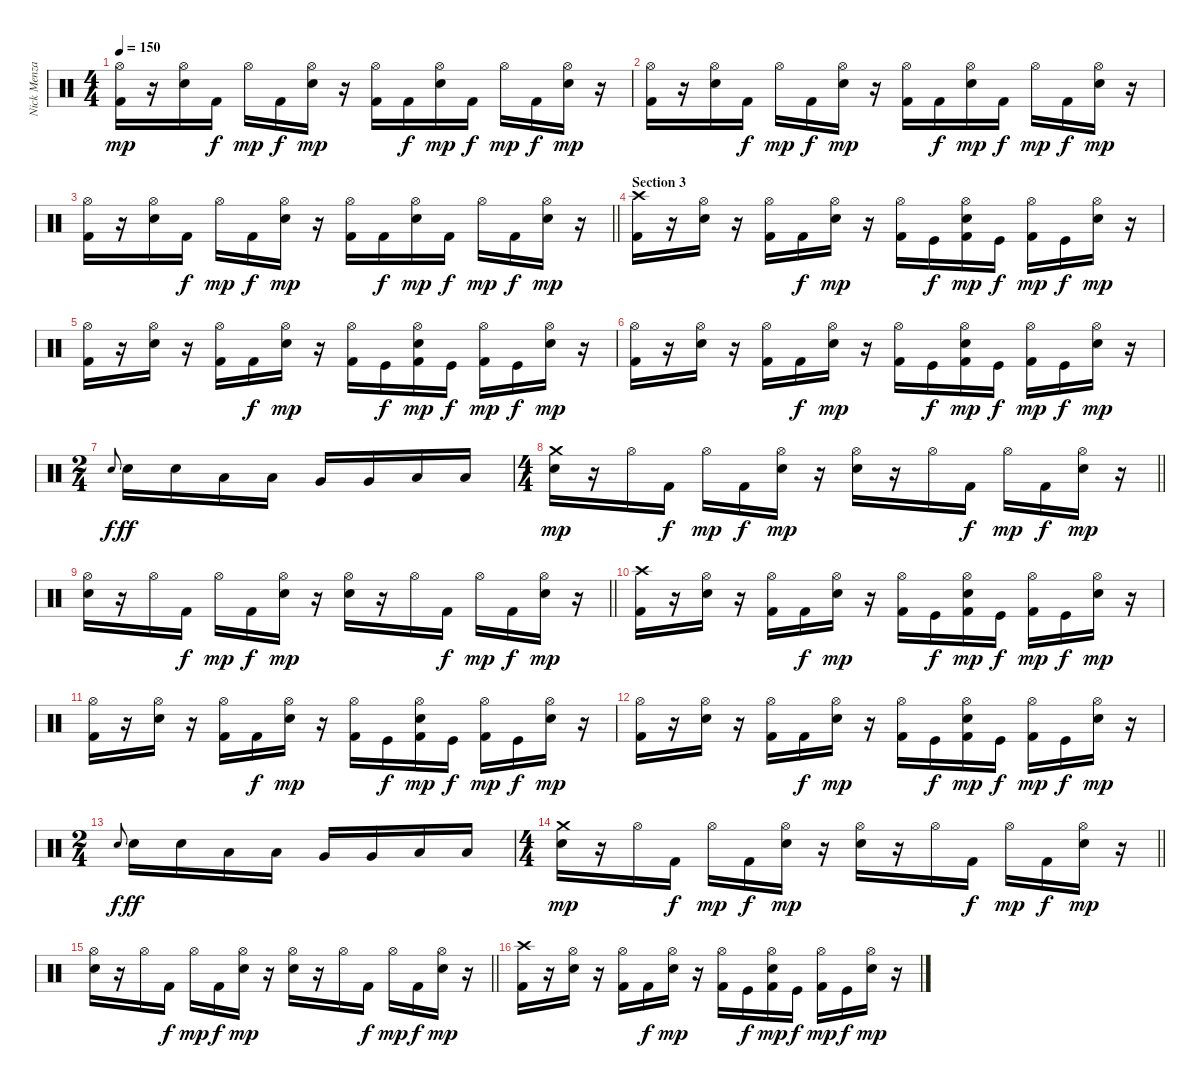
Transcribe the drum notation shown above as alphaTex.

\track ("Nick Menza" "Nick Menza") {solo instrument percussion}
\staff {score}
\articulation defaults
\ts (4 4)
\tempo 150
\clef neutral
\ks c
("Hi-Hat (open)" "Kick (hit) 2").16{dy mp} r.16 ("Hi-Hat (open)" "Electric Snare (hit)").16 "Kick (hit) 2".16{dy f} "Hi-Hat (open)".16{dy mp} "Kick (hit) 2".16{dy f} ("Hi-Hat (open)" "Electric Snare (hit)").16{dy mp} r.16 ("Hi-Hat (open)" "Kick (hit) 2").16 "Kick (hit) 2".16{dy f} ("Hi-Hat (open)" "Electric Snare (hit)").16{dy mp} "Kick (hit) 2".16{dy f} "Hi-Hat (open)".16{dy mp} "Kick (hit) 2".16{dy f} ("Hi-Hat (open)" "Electric Snare (hit)").16{dy mp} r.16 |
("Hi-Hat (open)" "Kick (hit) 2").16 r.16 ("Hi-Hat (open)" "Electric Snare (hit)").16 "Kick (hit) 2".16{dy f} "Hi-Hat (open)".16{dy mp} "Kick (hit) 2".16{dy f} ("Hi-Hat (open)" "Electric Snare (hit)").16{dy mp} r.16 ("Hi-Hat (open)" "Kick (hit) 2").16 "Kick (hit) 2".16{dy f} ("Hi-Hat (open)" "Electric Snare (hit)").16{dy mp} "Kick (hit) 2".16{dy f} "Hi-Hat (open)".16{dy mp} "Kick (hit) 2".16{dy f} ("Hi-Hat (open)" "Electric Snare (hit)").16{dy mp} r.16 |
\barLineRight lightlight
("Hi-Hat (open)" "Kick (hit) 2").16 r.16 ("Hi-Hat (open)" "Electric Snare (hit)").16 "Kick (hit) 2".16{dy f} "Hi-Hat (open)".16{dy mp} "Kick (hit) 2".16{dy f} ("Hi-Hat (open)" "Electric Snare (hit)").16{dy mp} r.16 ("Hi-Hat (open)" "Kick (hit) 2").16 "Kick (hit) 2".16{dy f} ("Hi-Hat (open)" "Electric Snare (hit)").16{dy mp} "Kick (hit) 2".16{dy f} "Hi-Hat (open)".16{dy mp} "Kick (hit) 2".16{dy f} ("Hi-Hat (open)" "Electric Snare (hit)").16{dy mp} r.16 |
\section ("" "Section 3")
("Crash high (hit)" "Kick (hit) 2").16 r.16 ("Hi-Hat (open)" "Electric Snare (hit)").16 r.16 ("Hi-Hat (open)" "Kick (hit) 2").16 "Kick (hit) 2".16{dy f} ("Hi-Hat (open)" "Electric Snare (hit)").16{dy mp} r.16 ("Hi-Hat (open)" "Kick (hit) 2").16 "Kick (hit)".16{dy f} ("Hi-Hat (open)" "Electric Snare (hit)" "Kick (hit) 2").16{dy mp} "Kick (hit)".16{dy f} ("Hi-Hat (open)" "Kick (hit) 2").16{dy mp} "Kick (hit)".16{dy f} ("Hi-Hat (open)" "Electric Snare (hit)").16{dy mp} r.16 |
("Hi-Hat (open)" "Kick (hit) 2").16 r.16 ("Hi-Hat (open)" "Electric Snare (hit)").16 r.16 ("Hi-Hat (open)" "Kick (hit) 2").16 "Kick (hit) 2".16{dy f} ("Hi-Hat (open)" "Electric Snare (hit)").16{dy mp} r.16 ("Hi-Hat (open)" "Kick (hit) 2").16 "Kick (hit)".16{dy f} ("Hi-Hat (open)" "Electric Snare (hit)" "Kick (hit) 2").16{dy mp} "Kick (hit)".16{dy f} ("Hi-Hat (open)" "Kick (hit) 2").16{dy mp} "Kick (hit)".16{dy f} ("Hi-Hat (open)" "Electric Snare (hit)").16{dy mp} r.16 |
("Hi-Hat (open)" "Kick (hit) 2").16 r.16 ("Hi-Hat (open)" "Electric Snare (hit)").16 r.16 ("Hi-Hat (open)" "Kick (hit) 2").16 "Kick (hit) 2".16{dy f} ("Hi-Hat (open)" "Electric Snare (hit)").16{dy mp} r.16 ("Hi-Hat (open)" "Kick (hit) 2").16 "Kick (hit)".16{dy f} ("Hi-Hat (open)" "Electric Snare (hit)" "Kick (hit) 2").16{dy mp} "Kick (hit)".16{dy f} ("Hi-Hat (open)" "Kick (hit) 2").16{dy mp} "Kick (hit)".16{dy f} ("Hi-Hat (open)" "Electric Snare (hit)").16{dy mp} r.16 |
\ts (2 4)
"Electric Snare (hit)".8{gr onbeat dy f} "Electric Snare (hit)".16{dy ff} "Electric Snare (hit)".16 "Low Tom (hit)".16 "Low Tom (hit)".16 "Very Low Tom (hit)".16 "Very Low Tom (hit)".16 "Low Floor Tom (hit)".16 "Low Floor Tom (hit)".16 |
\ts (4 4)
\barLineRight lightlight
("Crash medium (hit)" "Electric Snare (hit)").16{dy mp} r.16 "Hi-Hat (open)".16 "Kick (hit) 2".16{dy f} "Hi-Hat (open)".16{dy mp} "Kick (hit) 2".16{dy f} ("Hi-Hat (open)" "Electric Snare (hit)").16{dy mp} r.16 ("Hi-Hat (open)" "Electric Snare (hit)").16 r.16 "Hi-Hat (open)".16 "Kick (hit) 2".16{dy f} "Hi-Hat (open)".16{dy mp} "Kick (hit) 2".16{dy f} ("Hi-Hat (open)" "Electric Snare (hit)").16{dy mp} r.16 |
\barLineRight lightlight
("Hi-Hat (open)" "Electric Snare (hit)").16 r.16 "Hi-Hat (open)".16 "Kick (hit) 2".16{dy f} "Hi-Hat (open)".16{dy mp} "Kick (hit) 2".16{dy f} ("Hi-Hat (open)" "Electric Snare (hit)").16{dy mp} r.16 ("Hi-Hat (open)" "Electric Snare (hit)").16 r.16 "Hi-Hat (open)".16 "Kick (hit) 2".16{dy f} "Hi-Hat (open)".16{dy mp} "Kick (hit) 2".16{dy f} ("Hi-Hat (open)" "Electric Snare (hit)").16{dy mp} r.16 |
\section ("" "")
("Crash high (hit)" "Kick (hit) 2").16 r.16 ("Hi-Hat (open)" "Electric Snare (hit)").16 r.16 ("Hi-Hat (open)" "Kick (hit) 2").16 "Kick (hit) 2".16{dy f} ("Hi-Hat (open)" "Electric Snare (hit)").16{dy mp} r.16 ("Hi-Hat (open)" "Kick (hit) 2").16 "Kick (hit)".16{dy f} ("Hi-Hat (open)" "Electric Snare (hit)" "Kick (hit) 2").16{dy mp} "Kick (hit)".16{dy f} ("Hi-Hat (open)" "Kick (hit) 2").16{dy mp} "Kick (hit)".16{dy f} ("Hi-Hat (open)" "Electric Snare (hit)").16{dy mp} r.16 |
("Hi-Hat (open)" "Kick (hit) 2").16 r.16 ("Hi-Hat (open)" "Electric Snare (hit)").16 r.16 ("Hi-Hat (open)" "Kick (hit) 2").16 "Kick (hit) 2".16{dy f} ("Hi-Hat (open)" "Electric Snare (hit)").16{dy mp} r.16 ("Hi-Hat (open)" "Kick (hit) 2").16 "Kick (hit)".16{dy f} ("Hi-Hat (open)" "Electric Snare (hit)" "Kick (hit) 2").16{dy mp} "Kick (hit)".16{dy f} ("Hi-Hat (open)" "Kick (hit) 2").16{dy mp} "Kick (hit)".16{dy f} ("Hi-Hat (open)" "Electric Snare (hit)").16{dy mp} r.16 |
("Hi-Hat (open)" "Kick (hit) 2").16 r.16 ("Hi-Hat (open)" "Electric Snare (hit)").16 r.16 ("Hi-Hat (open)" "Kick (hit) 2").16 "Kick (hit) 2".16{dy f} ("Hi-Hat (open)" "Electric Snare (hit)").16{dy mp} r.16 ("Hi-Hat (open)" "Kick (hit) 2").16 "Kick (hit)".16{dy f} ("Hi-Hat (open)" "Electric Snare (hit)" "Kick (hit) 2").16{dy mp} "Kick (hit)".16{dy f} ("Hi-Hat (open)" "Kick (hit) 2").16{dy mp} "Kick (hit)".16{dy f} ("Hi-Hat (open)" "Electric Snare (hit)").16{dy mp} r.16 |
\ts (2 4)
"Electric Snare (hit)".8{gr onbeat dy f} "Electric Snare (hit)".16{dy ff} "Electric Snare (hit)".16 "Low Tom (hit)".16 "Low Tom (hit)".16 "Very Low Tom (hit)".16 "Very Low Tom (hit)".16 "Low Floor Tom (hit)".16 "Low Floor Tom (hit)".16 |
\ts (4 4)
\barLineRight lightlight
("Crash medium (hit)" "Electric Snare (hit)").16{dy mp} r.16 "Hi-Hat (open)".16 "Kick (hit) 2".16{dy f} "Hi-Hat (open)".16{dy mp} "Kick (hit) 2".16{dy f} ("Hi-Hat (open)" "Electric Snare (hit)").16{dy mp} r.16 ("Hi-Hat (open)" "Electric Snare (hit)").16 r.16 "Hi-Hat (open)".16 "Kick (hit) 2".16{dy f} "Hi-Hat (open)".16{dy mp} "Kick (hit) 2".16{dy f} ("Hi-Hat (open)" "Electric Snare (hit)").16{dy mp} r.16 |
\barLineRight lightlight
("Hi-Hat (open)" "Electric Snare (hit)").16 r.16 "Hi-Hat (open)".16 "Kick (hit) 2".16{dy f} "Hi-Hat (open)".16{dy mp} "Kick (hit) 2".16{dy f} ("Hi-Hat (open)" "Electric Snare (hit)").16{dy mp} r.16 ("Hi-Hat (open)" "Electric Snare (hit)").16 r.16 "Hi-Hat (open)".16 "Kick (hit) 2".16{dy f} "Hi-Hat (open)".16{dy mp} "Kick (hit) 2".16{dy f} ("Hi-Hat (open)" "Electric Snare (hit)").16{dy mp} r.16 |
\section ("" "")
("Crash high (hit)" "Kick (hit) 2").16 r.16 ("Hi-Hat (open)" "Electric Snare (hit)").16 r.16 ("Hi-Hat (open)" "Kick (hit) 2").16 "Kick (hit) 2".16{dy f} ("Hi-Hat (open)" "Electric Snare (hit)").16{dy mp} r.16 ("Hi-Hat (open)" "Kick (hit) 2").16 "Kick (hit)".16{dy f} ("Hi-Hat (open)" "Electric Snare (hit)" "Kick (hit) 2").16{dy mp} "Kick (hit)".16{dy f} ("Hi-Hat (open)" "Kick (hit) 2").16{dy mp} "Kick (hit)".16{dy f} ("Hi-Hat (open)" "Electric Snare (hit)").16{dy mp} r.16
